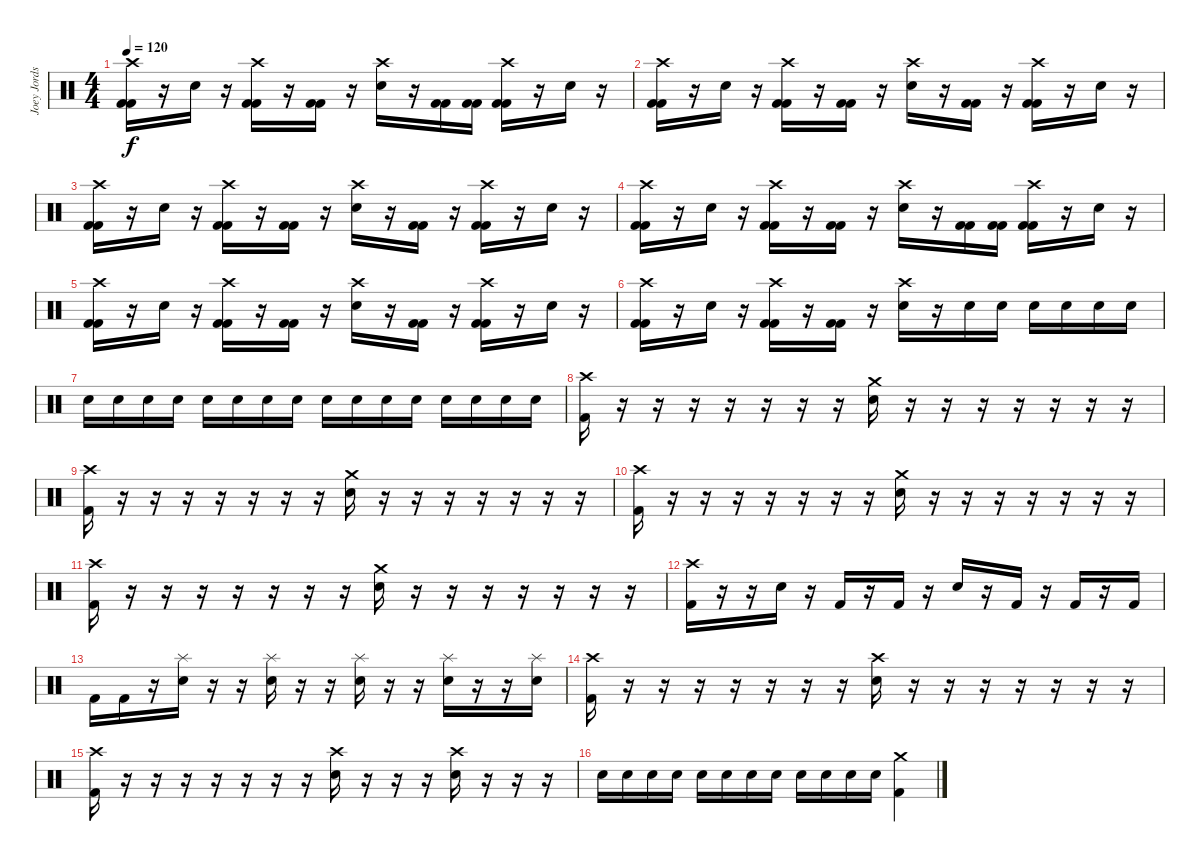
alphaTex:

\track ("Joey Jordson" "Joey Jords") {instrument percussion}
\staff {score}
\articulation defaults
\ts (4 4)
\tempo 120
\clef neutral
\ks c
("Crash high (hit)" "Kick (hit) 2" "Kick (hit) 2").16{dy f} r.16 "Electric Snare (hit)".16 r.16 ("Crash high (hit)" "Kick (hit) 2" "Kick (hit) 2").16 r.16 ("Kick (hit) 2" "Kick (hit) 2").16 r.16 ("Crash high (hit)" "Electric Snare (hit)").16 r.16 ("Kick (hit) 2" "Kick (hit) 2").16 ("Kick (hit) 2" "Kick (hit) 2").16 ("Crash high (hit)" "Kick (hit) 2" "Kick (hit) 2").16 r.16 "Electric Snare (hit)".16 r.16 |
("Crash high (hit)" "Kick (hit) 2" "Kick (hit) 2").16 r.16 "Electric Snare (hit)".16 r.16 ("Crash high (hit)" "Kick (hit) 2" "Kick (hit) 2").16 r.16 ("Kick (hit) 2" "Kick (hit) 2").16 r.16 ("Crash high (hit)" "Electric Snare (hit)").16 r.16 ("Kick (hit) 2" "Kick (hit) 2").16 r.16 ("Crash high (hit)" "Kick (hit) 2" "Kick (hit) 2").16 r.16 "Electric Snare (hit)".16 r.16 |
("Crash high (hit)" "Kick (hit) 2" "Kick (hit) 2").16 r.16 "Electric Snare (hit)".16 r.16 ("Crash high (hit)" "Kick (hit) 2" "Kick (hit) 2").16 r.16 ("Kick (hit) 2" "Kick (hit) 2").16 r.16 ("Crash high (hit)" "Electric Snare (hit)").16 r.16 ("Kick (hit) 2" "Kick (hit) 2").16 r.16 ("Crash high (hit)" "Kick (hit) 2" "Kick (hit) 2").16 r.16 "Electric Snare (hit)".16 r.16 |
("Crash high (hit)" "Kick (hit) 2" "Kick (hit) 2").16 r.16 "Electric Snare (hit)".16 r.16 ("Crash high (hit)" "Kick (hit) 2" "Kick (hit) 2").16 r.16 ("Kick (hit) 2" "Kick (hit) 2").16 r.16 ("Crash high (hit)" "Electric Snare (hit)").16 r.16 ("Kick (hit) 2" "Kick (hit) 2").16 ("Kick (hit) 2" "Kick (hit) 2").16 ("Crash high (hit)" "Kick (hit) 2" "Kick (hit) 2").16 r.16 "Electric Snare (hit)".16 r.16 |
("Crash high (hit)" "Kick (hit) 2" "Kick (hit) 2").16 r.16 "Electric Snare (hit)".16 r.16 ("Crash high (hit)" "Kick (hit) 2" "Kick (hit) 2").16 r.16 ("Kick (hit) 2" "Kick (hit) 2").16 r.16 ("Crash high (hit)" "Electric Snare (hit)").16 r.16 ("Kick (hit) 2" "Kick (hit) 2").16 r.16 ("Crash high (hit)" "Kick (hit) 2" "Kick (hit) 2").16 r.16 "Electric Snare (hit)".16 r.16 |
("Crash high (hit)" "Kick (hit) 2" "Kick (hit) 2").16 r.16 "Electric Snare (hit)".16 r.16 ("Crash high (hit)" "Kick (hit) 2" "Kick (hit) 2").16 r.16 ("Kick (hit) 2" "Kick (hit) 2").16 r.16 ("Crash high (hit)" "Electric Snare (hit)").16 r.16 "Electric Snare (hit)".16 "Electric Snare (hit)".16 "Electric Snare (hit)".16 "Electric Snare (hit)".16 "Electric Snare (hit)".16 "Electric Snare (hit)".16 |
"Electric Snare (hit)".16 "Electric Snare (hit)".16 "Electric Snare (hit)".16 "Electric Snare (hit)".16 "Electric Snare (hit)".16 "Electric Snare (hit)".16 "Electric Snare (hit)".16 "Electric Snare (hit)".16 "Electric Snare (hit)".16 "Electric Snare (hit)".16 "Electric Snare (hit)".16 "Electric Snare (hit)".16 "Electric Snare (hit)".16 "Electric Snare (hit)".16 "Electric Snare (hit)".16 "Electric Snare (hit)".16 |
("Crash high (hit)" "Kick (hit) 2").16 r.16 r.16 r.16 r.16 r.16 r.16 r.16 ("Crash medium (hit)" "Electric Snare (hit)").16 r.16 r.16 r.16 r.16 r.16 r.16 r.16 |
("Crash high (hit)" "Kick (hit) 2").16 r.16 r.16 r.16 r.16 r.16 r.16 r.16 ("Crash medium (hit)" "Electric Snare (hit)").16 r.16 r.16 r.16 r.16 r.16 r.16 r.16 |
("Crash high (hit)" "Kick (hit) 2").16 r.16 r.16 r.16 r.16 r.16 r.16 r.16 ("Crash medium (hit)" "Electric Snare (hit)").16 r.16 r.16 r.16 r.16 r.16 r.16 r.16 |
("Crash high (hit)" "Kick (hit) 2").16 r.16 r.16 r.16 r.16 r.16 r.16 r.16 ("Crash medium (hit)" "Electric Snare (hit)").16 r.16 r.16 r.16 r.16 r.16 r.16 r.16 |
("Crash high (hit)" "Kick (hit) 2").16 r.16 r.16 "Electric Snare (hit)".16 r.16 "Kick (hit) 2".16 r.16 "Kick (hit) 2".16 r.16 "Electric Snare (hit)".16 r.16 "Kick (hit) 2".16 r.16 "Kick (hit) 2".16 r.16 "Kick (hit) 2".16 |
"Kick (hit) 2".16 "Kick (hit) 2".16 r.16 ("Splash (hit)" "Electric Snare (hit)").16 r.16 r.16 ("Splash (hit)" "Electric Snare (hit)").16 r.16 r.16 ("Splash (hit)" "Electric Snare (hit)").16 r.16 r.16 ("Splash (hit)" "Electric Snare (hit)").16 r.16 r.16 ("Splash (hit)" "Electric Snare (hit)").16 |
("Crash high (hit)" "Kick (hit) 2").16 r.16 r.16 r.16 r.16 r.16 r.16 r.16 ("Crash high (hit)" "Electric Snare (hit)").16 r.16 r.16 r.16 r.16 r.16 r.16 r.16 |
("Crash high (hit)" "Kick (hit) 2").16 r.16 r.16 r.16 r.16 r.16 r.16 r.16 ("Crash high (hit)" "Electric Snare (hit)").16 r.16 r.16 r.16 ("Crash high (hit)" "Electric Snare (hit)").16 r.16 r.16 r.16 |
"Electric Snare (hit)".16 "Electric Snare (hit)".16 "Electric Snare (hit)".16 "Electric Snare (hit)".16 "Electric Snare (hit)".16 "Electric Snare (hit)".16 "Electric Snare (hit)".16 "Electric Snare (hit)".16 "Electric Snare (hit)".16 "Electric Snare (hit)".16 "Electric Snare (hit)".16 "Electric Snare (hit)".16 ("Crash medium (hit)" "Kick (hit) 2").4
